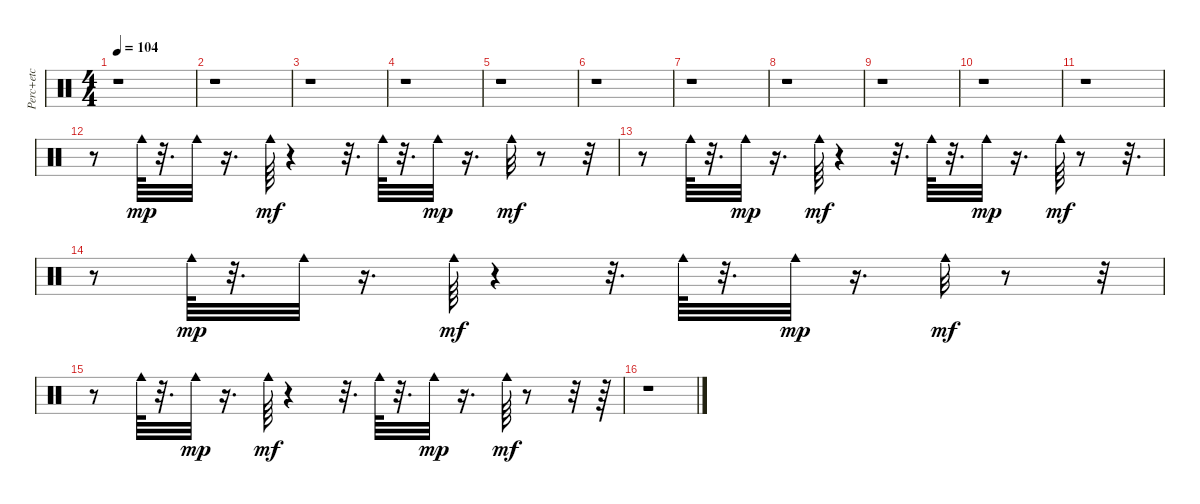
\track ("Perc+etc" "Perc+etc") {instrument percussion}
\staff {score}
\articulation defaults
\ts (4 4)
\tempo 104
\clef neutral
\ks c
r.1{dy mf} |
r.1 |
r.1 |
r.1 |
r.1 |
r.1 |
r.1 |
r.1 |
r.1 |
r.1 |
r.1 |
r.8 "Cowbell medium (hit)".64{dy mp} r.32{d} "Cowbell medium (hit)".32 r.16{d} "Cowbell medium (hit)".64{dy mf} r.4 r.32{d} "Cowbell medium (hit)".64 r.32{d} "Cowbell medium (hit)".32{dy mp} r.16{d} "Cowbell medium (hit)".32{dy mf} r.8 r.32 |
r.8 "Cowbell medium (hit)".64 r.32{d} "Cowbell medium (hit)".32{dy mp} r.16{d} "Cowbell medium (hit)".64{dy mf} r.4 r.32{d} "Cowbell medium (hit)".64 r.32{d} "Cowbell medium (hit)".32{dy mp} r.16{d} "Cowbell medium (hit)".64{dy mf} r.8 r.32{d} |
r.8 "Cowbell medium (hit)".64{dy mp} r.32{d} "Cowbell medium (hit)".32 r.16{d} "Cowbell medium (hit)".64{dy mf} r.4 r.32{d} "Cowbell medium (hit)".64 r.32{d} "Cowbell medium (hit)".32{dy mp} r.16{d} "Cowbell medium (hit)".32{dy mf} r.8 r.32 |
r.8 "Cowbell medium (hit)".64 r.32{d} "Cowbell medium (hit)".32{dy mp} r.16{d} "Cowbell medium (hit)".64{dy mf} r.4 r.32{d} "Cowbell medium (hit)".64 r.32{d} "Cowbell medium (hit)".32{dy mp} r.16{d} "Cowbell medium (hit)".64{dy mf} r.8 r.32 r.64 |
r.1
